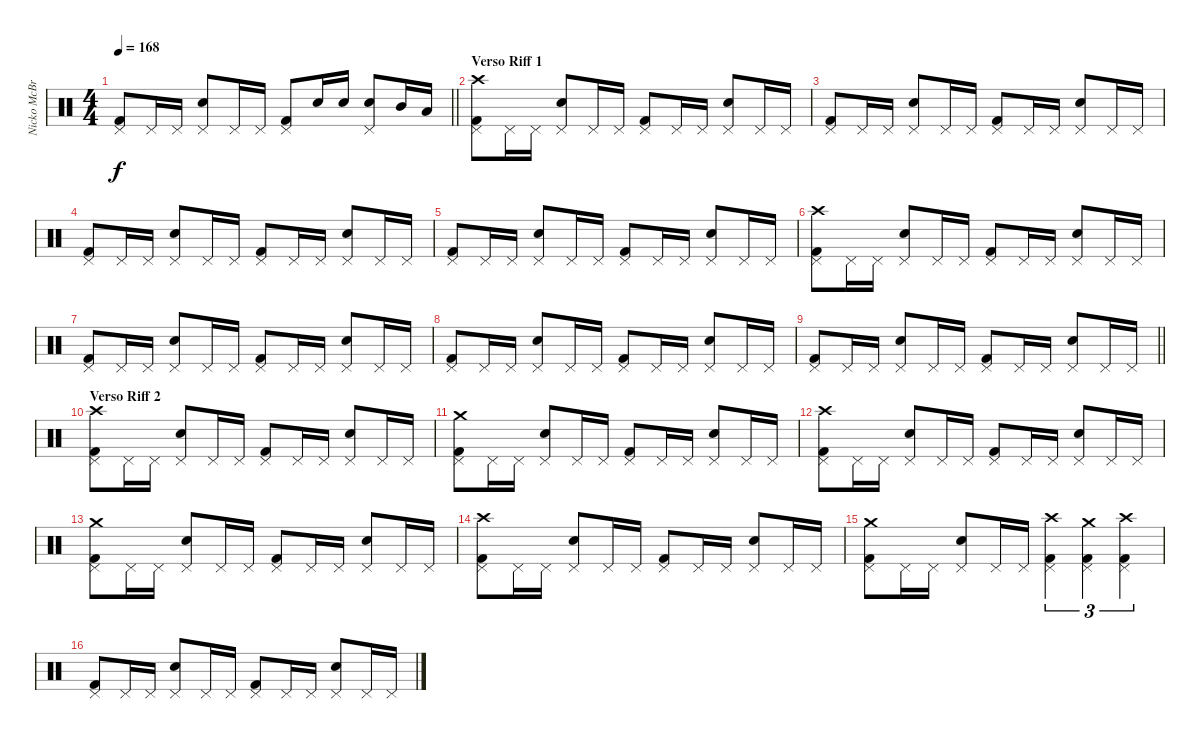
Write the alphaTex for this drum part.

\track ("Nicko McBrain" "Nicko McBr") {instrument percussion}
\staff {score}
\articulation defaults
\ts (4 4)
\tempo 168
\clef neutral
\barLineRight lightlight
\ks c
("Kick (hit) 2" "Pedal Hi-Hat (hit)").8{dy f} "Pedal Hi-Hat (hit)".16 "Pedal Hi-Hat (hit)".16 ("Snare (hit) 2" "Pedal Hi-Hat (hit)").8 "Pedal Hi-Hat (hit)".16 "Pedal Hi-Hat (hit)".16 ("Kick (hit) 2" "Pedal Hi-Hat (hit)").8 "Snare (hit) 2".16 "Snare (hit) 2".16 ("Snare (hit) 2" "Pedal Hi-Hat (hit)").8 "Mid Tom (hit)".16 "Low Tom (hit)".16 |
\section ("" "Verso Riff 1")
("Kick (hit) 2" "Pedal Hi-Hat (hit)" "Crash high (hit)").8 "Pedal Hi-Hat (hit)".16 "Pedal Hi-Hat (hit)".16 ("Snare (hit) 2" "Pedal Hi-Hat (hit)").8 "Pedal Hi-Hat (hit)".16 "Pedal Hi-Hat (hit)".16 ("Kick (hit) 2" "Pedal Hi-Hat (hit)").8 "Pedal Hi-Hat (hit)".16 "Pedal Hi-Hat (hit)".16 ("Snare (hit) 2" "Pedal Hi-Hat (hit)").8 "Pedal Hi-Hat (hit)".16 "Pedal Hi-Hat (hit)".16 |
("Kick (hit) 2" "Pedal Hi-Hat (hit)").8 "Pedal Hi-Hat (hit)".16 "Pedal Hi-Hat (hit)".16 ("Snare (hit) 2" "Pedal Hi-Hat (hit)").8 "Pedal Hi-Hat (hit)".16 "Pedal Hi-Hat (hit)".16 ("Kick (hit) 2" "Pedal Hi-Hat (hit)").8 "Pedal Hi-Hat (hit)".16 "Pedal Hi-Hat (hit)".16 ("Snare (hit) 2" "Pedal Hi-Hat (hit)").8 "Pedal Hi-Hat (hit)".16 "Pedal Hi-Hat (hit)".16 |
("Kick (hit) 2" "Pedal Hi-Hat (hit)").8 "Pedal Hi-Hat (hit)".16 "Pedal Hi-Hat (hit)".16 ("Snare (hit) 2" "Pedal Hi-Hat (hit)").8 "Pedal Hi-Hat (hit)".16 "Pedal Hi-Hat (hit)".16 ("Kick (hit) 2" "Pedal Hi-Hat (hit)").8 "Pedal Hi-Hat (hit)".16 "Pedal Hi-Hat (hit)".16 ("Snare (hit) 2" "Pedal Hi-Hat (hit)").8 "Pedal Hi-Hat (hit)".16 "Pedal Hi-Hat (hit)".16 |
("Kick (hit) 2" "Pedal Hi-Hat (hit)").8 "Pedal Hi-Hat (hit)".16 "Pedal Hi-Hat (hit)".16 ("Snare (hit) 2" "Pedal Hi-Hat (hit)").8 "Pedal Hi-Hat (hit)".16 "Pedal Hi-Hat (hit)".16 ("Kick (hit) 2" "Pedal Hi-Hat (hit)").8 "Pedal Hi-Hat (hit)".16 "Pedal Hi-Hat (hit)".16 ("Snare (hit) 2" "Pedal Hi-Hat (hit)").8 "Pedal Hi-Hat (hit)".16 "Pedal Hi-Hat (hit)".16 |
("Kick (hit) 2" "Pedal Hi-Hat (hit)" "Crash high (hit)").8 "Pedal Hi-Hat (hit)".16 "Pedal Hi-Hat (hit)".16 ("Snare (hit) 2" "Pedal Hi-Hat (hit)").8 "Pedal Hi-Hat (hit)".16 "Pedal Hi-Hat (hit)".16 ("Kick (hit) 2" "Pedal Hi-Hat (hit)").8 "Pedal Hi-Hat (hit)".16 "Pedal Hi-Hat (hit)".16 ("Snare (hit) 2" "Pedal Hi-Hat (hit)").8 "Pedal Hi-Hat (hit)".16 "Pedal Hi-Hat (hit)".16 |
("Kick (hit) 2" "Pedal Hi-Hat (hit)").8 "Pedal Hi-Hat (hit)".16 "Pedal Hi-Hat (hit)".16 ("Snare (hit) 2" "Pedal Hi-Hat (hit)").8 "Pedal Hi-Hat (hit)".16 "Pedal Hi-Hat (hit)".16 ("Kick (hit) 2" "Pedal Hi-Hat (hit)").8 "Pedal Hi-Hat (hit)".16 "Pedal Hi-Hat (hit)".16 ("Snare (hit) 2" "Pedal Hi-Hat (hit)").8 "Pedal Hi-Hat (hit)".16 "Pedal Hi-Hat (hit)".16 |
("Kick (hit) 2" "Pedal Hi-Hat (hit)").8 "Pedal Hi-Hat (hit)".16 "Pedal Hi-Hat (hit)".16 ("Snare (hit) 2" "Pedal Hi-Hat (hit)").8 "Pedal Hi-Hat (hit)".16 "Pedal Hi-Hat (hit)".16 ("Kick (hit) 2" "Pedal Hi-Hat (hit)").8 "Pedal Hi-Hat (hit)".16 "Pedal Hi-Hat (hit)".16 ("Snare (hit) 2" "Pedal Hi-Hat (hit)").8 "Pedal Hi-Hat (hit)".16 "Pedal Hi-Hat (hit)".16 |
\barLineRight lightlight
("Kick (hit) 2" "Pedal Hi-Hat (hit)").8 "Pedal Hi-Hat (hit)".16 "Pedal Hi-Hat (hit)".16 ("Snare (hit) 2" "Pedal Hi-Hat (hit)").8 "Pedal Hi-Hat (hit)".16 "Pedal Hi-Hat (hit)".16 ("Kick (hit) 2" "Pedal Hi-Hat (hit)").8 "Pedal Hi-Hat (hit)".16 "Pedal Hi-Hat (hit)".16 ("Snare (hit) 2" "Pedal Hi-Hat (hit)").8 "Pedal Hi-Hat (hit)".16 "Pedal Hi-Hat (hit)".16 |
\section ("" "Verso Riff 2")
("Kick (hit) 2" "Pedal Hi-Hat (hit)" "Crash high (hit)").8 "Pedal Hi-Hat (hit)".16 "Pedal Hi-Hat (hit)".16 ("Snare (hit) 2" "Pedal Hi-Hat (hit)").8 "Pedal Hi-Hat (hit)".16 "Pedal Hi-Hat (hit)".16 ("Kick (hit) 2" "Pedal Hi-Hat (hit)").8 "Pedal Hi-Hat (hit)".16 "Pedal Hi-Hat (hit)".16 ("Snare (hit) 2" "Pedal Hi-Hat (hit)").8 "Pedal Hi-Hat (hit)".16 "Pedal Hi-Hat (hit)".16 |
("Kick (hit) 2" "Pedal Hi-Hat (hit)" "Crash medium (hit)").8 "Pedal Hi-Hat (hit)".16 "Pedal Hi-Hat (hit)".16 ("Snare (hit) 2" "Pedal Hi-Hat (hit)").8 "Pedal Hi-Hat (hit)".16 "Pedal Hi-Hat (hit)".16 ("Kick (hit) 2" "Pedal Hi-Hat (hit)").8 "Pedal Hi-Hat (hit)".16 "Pedal Hi-Hat (hit)".16 ("Snare (hit) 2" "Pedal Hi-Hat (hit)").8 "Pedal Hi-Hat (hit)".16 "Pedal Hi-Hat (hit)".16 |
("Kick (hit) 2" "Pedal Hi-Hat (hit)" "Crash high (hit)").8 "Pedal Hi-Hat (hit)".16 "Pedal Hi-Hat (hit)".16 ("Snare (hit) 2" "Pedal Hi-Hat (hit)").8 "Pedal Hi-Hat (hit)".16 "Pedal Hi-Hat (hit)".16 ("Kick (hit) 2" "Pedal Hi-Hat (hit)").8 "Pedal Hi-Hat (hit)".16 "Pedal Hi-Hat (hit)".16 ("Snare (hit) 2" "Pedal Hi-Hat (hit)").8 "Pedal Hi-Hat (hit)".16 "Pedal Hi-Hat (hit)".16 |
("Kick (hit) 2" "Pedal Hi-Hat (hit)" "Crash medium (hit)").8 "Pedal Hi-Hat (hit)".16 "Pedal Hi-Hat (hit)".16 ("Snare (hit) 2" "Pedal Hi-Hat (hit)").8 "Pedal Hi-Hat (hit)".16 "Pedal Hi-Hat (hit)".16 ("Kick (hit) 2" "Pedal Hi-Hat (hit)").8 "Pedal Hi-Hat (hit)".16 "Pedal Hi-Hat (hit)".16 ("Snare (hit) 2" "Pedal Hi-Hat (hit)").8 "Pedal Hi-Hat (hit)".16 "Pedal Hi-Hat (hit)".16 |
("Kick (hit) 2" "Pedal Hi-Hat (hit)" "Crash high (hit)").8 "Pedal Hi-Hat (hit)".16 "Pedal Hi-Hat (hit)".16 ("Snare (hit) 2" "Pedal Hi-Hat (hit)").8 "Pedal Hi-Hat (hit)".16 "Pedal Hi-Hat (hit)".16 ("Kick (hit) 2" "Pedal Hi-Hat (hit)").8 "Pedal Hi-Hat (hit)".16 "Pedal Hi-Hat (hit)".16 ("Snare (hit) 2" "Pedal Hi-Hat (hit)").8 "Pedal Hi-Hat (hit)".16 "Pedal Hi-Hat (hit)".16 |
("Kick (hit) 2" "Pedal Hi-Hat (hit)" "Crash medium (hit)").8 "Pedal Hi-Hat (hit)".16 "Pedal Hi-Hat (hit)".16 ("Snare (hit) 2" "Pedal Hi-Hat (hit)").8 "Pedal Hi-Hat (hit)".16 "Pedal Hi-Hat (hit)".16 ("Kick (hit) 2" "Pedal Hi-Hat (hit)" "Crash high (hit)").4{tu (3 2)} ("Kick (hit) 2" "Pedal Hi-Hat (hit)" "Crash medium (hit)").4{tu (3 2)} ("Kick (hit) 2" "Pedal Hi-Hat (hit)" "Crash high (hit)").4{tu (3 2)} |
("Kick (hit) 2" "Pedal Hi-Hat (hit)").8 "Pedal Hi-Hat (hit)".16 "Pedal Hi-Hat (hit)".16 ("Snare (hit) 2" "Pedal Hi-Hat (hit)").8 "Pedal Hi-Hat (hit)".16 "Pedal Hi-Hat (hit)".16 ("Kick (hit) 2" "Pedal Hi-Hat (hit)").8 "Pedal Hi-Hat (hit)".16 "Pedal Hi-Hat (hit)".16 ("Snare (hit) 2" "Pedal Hi-Hat (hit)").8 "Pedal Hi-Hat (hit)".16 "Pedal Hi-Hat (hit)".16
